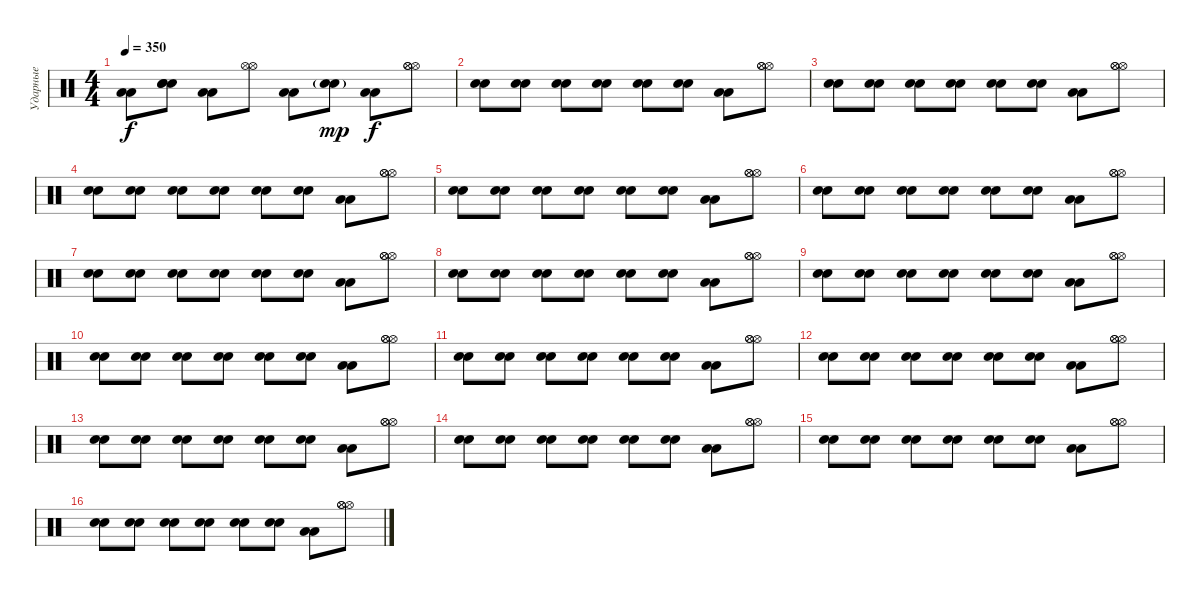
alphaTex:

\track ("Ударные" "Ударные") {instrument percussion}
\staff {score}
\articulation defaults
\ts (4 4)
\tempo 350
\clef neutral
\ks c
("Low Floor Tom (hit)" "Low Floor Tom (hit)").8{dy f} ("Electric Snare (hit)" "Electric Snare (hit)" "Electric Snare (hit)").8 ("Low Floor Tom (hit)" "Low Floor Tom (hit)").8 ("Hi-Hat (open)" "Hi-Hat (open)").8 ("Low Floor Tom (hit)" "Low Floor Tom (hit)").8 ("Electric Snare (hit)"{g} "Electric Snare (hit)"{g}).8{dy mp} ("Low Floor Tom (hit)" "Low Floor Tom (hit)").8{dy f} ("Hi-Hat (open)" "Hi-Hat (open)" "Hi-Hat (open)").8 |
("Electric Snare (hit)" "Electric Snare (hit)").8 ("Electric Snare (hit)" "Electric Snare (hit)").8 ("Electric Snare (hit)" "Electric Snare (hit)").8 ("Electric Snare (hit)" "Electric Snare (hit)").8 ("Electric Snare (hit)" "Electric Snare (hit)").8 ("Electric Snare (hit)" "Electric Snare (hit)").8 ("Low Floor Tom (hit)" "Low Floor Tom (hit)").8 ("Hi-Hat (open)" "Hi-Hat (open)" "Hi-Hat (open)").8 |
("Electric Snare (hit)" "Electric Snare (hit)").8 ("Electric Snare (hit)" "Electric Snare (hit)").8 ("Electric Snare (hit)" "Electric Snare (hit)").8 ("Electric Snare (hit)" "Electric Snare (hit)").8 ("Electric Snare (hit)" "Electric Snare (hit)").8 ("Electric Snare (hit)" "Electric Snare (hit)").8 ("Low Floor Tom (hit)" "Low Floor Tom (hit)").8 ("Hi-Hat (open)" "Hi-Hat (open)" "Hi-Hat (open)").8 |
("Electric Snare (hit)" "Electric Snare (hit)").8 ("Electric Snare (hit)" "Electric Snare (hit)").8 ("Electric Snare (hit)" "Electric Snare (hit)").8 ("Electric Snare (hit)" "Electric Snare (hit)").8 ("Electric Snare (hit)" "Electric Snare (hit)").8 ("Electric Snare (hit)" "Electric Snare (hit)").8 ("Low Floor Tom (hit)" "Low Floor Tom (hit)").8 ("Hi-Hat (open)" "Hi-Hat (open)" "Hi-Hat (open)").8 |
("Electric Snare (hit)" "Electric Snare (hit)").8 ("Electric Snare (hit)" "Electric Snare (hit)").8 ("Electric Snare (hit)" "Electric Snare (hit)").8 ("Electric Snare (hit)" "Electric Snare (hit)").8 ("Electric Snare (hit)" "Electric Snare (hit)").8 ("Electric Snare (hit)" "Electric Snare (hit)").8 ("Low Floor Tom (hit)" "Low Floor Tom (hit)").8 ("Hi-Hat (open)" "Hi-Hat (open)" "Hi-Hat (open)").8 |
("Electric Snare (hit)" "Electric Snare (hit)").8 ("Electric Snare (hit)" "Electric Snare (hit)").8 ("Electric Snare (hit)" "Electric Snare (hit)").8 ("Electric Snare (hit)" "Electric Snare (hit)").8 ("Electric Snare (hit)" "Electric Snare (hit)").8 ("Electric Snare (hit)" "Electric Snare (hit)").8 ("Low Floor Tom (hit)" "Low Floor Tom (hit)").8 ("Hi-Hat (open)" "Hi-Hat (open)" "Hi-Hat (open)").8 |
("Electric Snare (hit)" "Electric Snare (hit)").8 ("Electric Snare (hit)" "Electric Snare (hit)").8 ("Electric Snare (hit)" "Electric Snare (hit)").8 ("Electric Snare (hit)" "Electric Snare (hit)").8 ("Electric Snare (hit)" "Electric Snare (hit)").8 ("Electric Snare (hit)" "Electric Snare (hit)").8 ("Low Floor Tom (hit)" "Low Floor Tom (hit)").8 ("Hi-Hat (open)" "Hi-Hat (open)" "Hi-Hat (open)").8 |
("Electric Snare (hit)" "Electric Snare (hit)").8 ("Electric Snare (hit)" "Electric Snare (hit)").8 ("Electric Snare (hit)" "Electric Snare (hit)").8 ("Electric Snare (hit)" "Electric Snare (hit)").8 ("Electric Snare (hit)" "Electric Snare (hit)").8 ("Electric Snare (hit)" "Electric Snare (hit)").8 ("Low Floor Tom (hit)" "Low Floor Tom (hit)").8 ("Hi-Hat (open)" "Hi-Hat (open)" "Hi-Hat (open)").8 |
("Electric Snare (hit)" "Electric Snare (hit)").8 ("Electric Snare (hit)" "Electric Snare (hit)").8 ("Electric Snare (hit)" "Electric Snare (hit)").8 ("Electric Snare (hit)" "Electric Snare (hit)").8 ("Electric Snare (hit)" "Electric Snare (hit)").8 ("Electric Snare (hit)" "Electric Snare (hit)").8 ("Low Floor Tom (hit)" "Low Floor Tom (hit)").8 ("Hi-Hat (open)" "Hi-Hat (open)" "Hi-Hat (open)").8 |
("Electric Snare (hit)" "Electric Snare (hit)").8 ("Electric Snare (hit)" "Electric Snare (hit)").8 ("Electric Snare (hit)" "Electric Snare (hit)").8 ("Electric Snare (hit)" "Electric Snare (hit)").8 ("Electric Snare (hit)" "Electric Snare (hit)").8 ("Electric Snare (hit)" "Electric Snare (hit)").8 ("Low Floor Tom (hit)" "Low Floor Tom (hit)").8 ("Hi-Hat (open)" "Hi-Hat (open)" "Hi-Hat (open)").8 |
("Electric Snare (hit)" "Electric Snare (hit)").8 ("Electric Snare (hit)" "Electric Snare (hit)").8 ("Electric Snare (hit)" "Electric Snare (hit)").8 ("Electric Snare (hit)" "Electric Snare (hit)").8 ("Electric Snare (hit)" "Electric Snare (hit)").8 ("Electric Snare (hit)" "Electric Snare (hit)").8 ("Low Floor Tom (hit)" "Low Floor Tom (hit)").8 ("Hi-Hat (open)" "Hi-Hat (open)" "Hi-Hat (open)").8 |
("Electric Snare (hit)" "Electric Snare (hit)").8 ("Electric Snare (hit)" "Electric Snare (hit)").8 ("Electric Snare (hit)" "Electric Snare (hit)").8 ("Electric Snare (hit)" "Electric Snare (hit)").8 ("Electric Snare (hit)" "Electric Snare (hit)").8 ("Electric Snare (hit)" "Electric Snare (hit)").8 ("Low Floor Tom (hit)" "Low Floor Tom (hit)").8 ("Hi-Hat (open)" "Hi-Hat (open)" "Hi-Hat (open)").8 |
("Electric Snare (hit)" "Electric Snare (hit)").8 ("Electric Snare (hit)" "Electric Snare (hit)").8 ("Electric Snare (hit)" "Electric Snare (hit)").8 ("Electric Snare (hit)" "Electric Snare (hit)").8 ("Electric Snare (hit)" "Electric Snare (hit)").8 ("Electric Snare (hit)" "Electric Snare (hit)").8 ("Low Floor Tom (hit)" "Low Floor Tom (hit)").8 ("Hi-Hat (open)" "Hi-Hat (open)" "Hi-Hat (open)").8 |
("Electric Snare (hit)" "Electric Snare (hit)").8 ("Electric Snare (hit)" "Electric Snare (hit)").8 ("Electric Snare (hit)" "Electric Snare (hit)").8 ("Electric Snare (hit)" "Electric Snare (hit)").8 ("Electric Snare (hit)" "Electric Snare (hit)").8 ("Electric Snare (hit)" "Electric Snare (hit)").8 ("Low Floor Tom (hit)" "Low Floor Tom (hit)").8 ("Hi-Hat (open)" "Hi-Hat (open)" "Hi-Hat (open)").8 |
("Electric Snare (hit)" "Electric Snare (hit)").8 ("Electric Snare (hit)" "Electric Snare (hit)").8 ("Electric Snare (hit)" "Electric Snare (hit)").8 ("Electric Snare (hit)" "Electric Snare (hit)").8 ("Electric Snare (hit)" "Electric Snare (hit)").8 ("Electric Snare (hit)" "Electric Snare (hit)").8 ("Low Floor Tom (hit)" "Low Floor Tom (hit)").8 ("Hi-Hat (open)" "Hi-Hat (open)" "Hi-Hat (open)").8 |
("Electric Snare (hit)" "Electric Snare (hit)").8 ("Electric Snare (hit)" "Electric Snare (hit)").8 ("Electric Snare (hit)" "Electric Snare (hit)").8 ("Electric Snare (hit)" "Electric Snare (hit)").8 ("Electric Snare (hit)" "Electric Snare (hit)").8 ("Electric Snare (hit)" "Electric Snare (hit)").8 ("Low Floor Tom (hit)" "Low Floor Tom (hit)").8 ("Hi-Hat (open)" "Hi-Hat (open)" "Hi-Hat (open)").8
